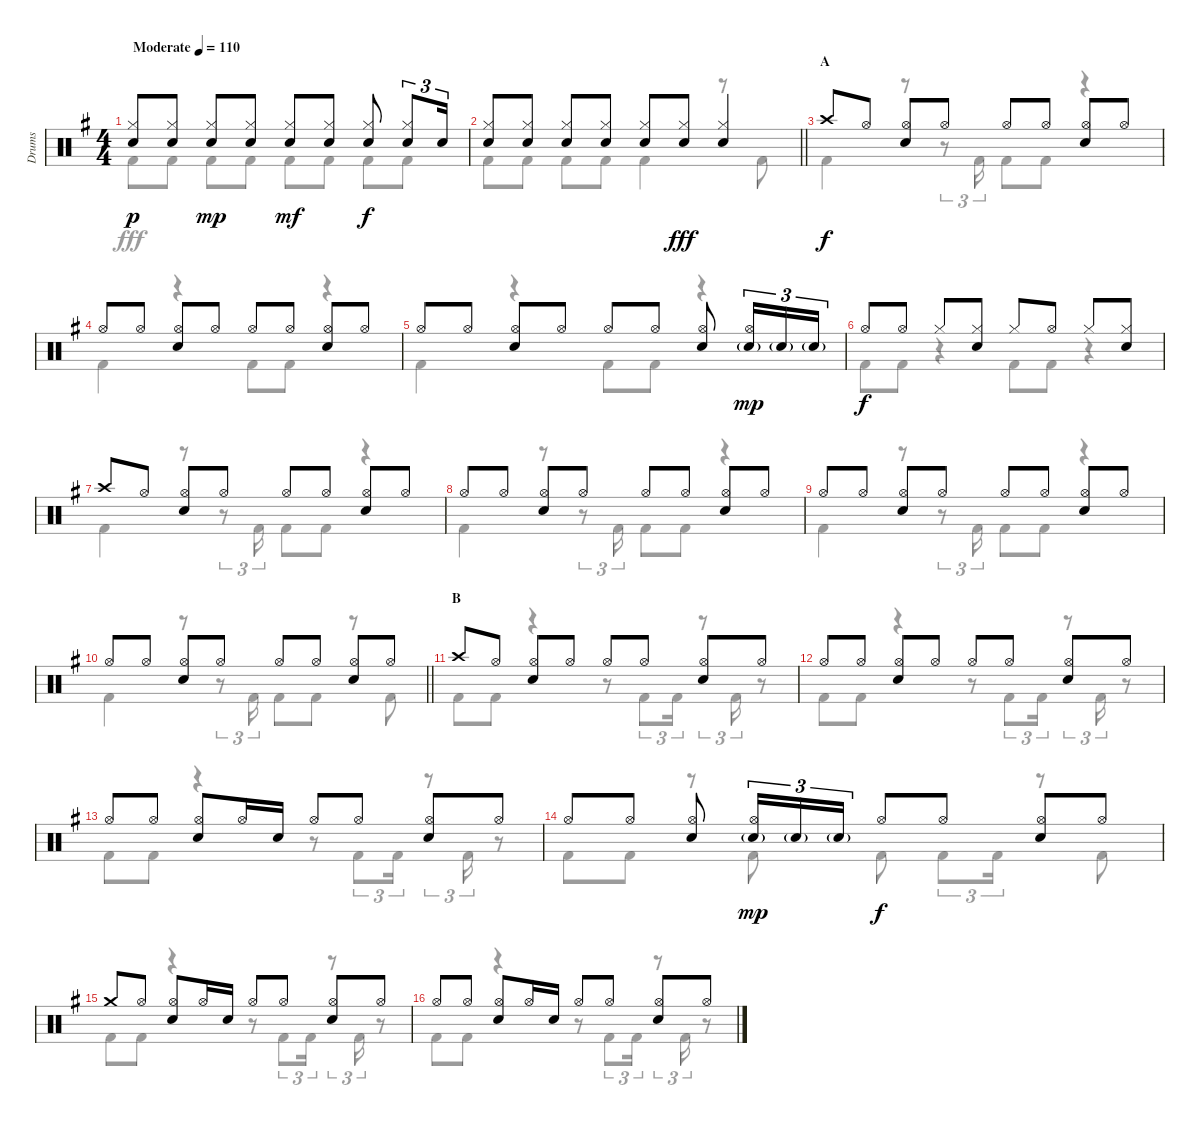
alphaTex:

\track ("Drums" "Drums") {instrument percussion}
\staff {score}
\articulation defaults
\voice
\ts (4 4)
\tempo (110 "Moderate")
\clef neutral
\ks g
("Hi-Hat (closed)" "Snare (hit) 2").8{dy p} ("Hi-Hat (closed)" "Snare (hit) 2").8 ("Hi-Hat (closed)" "Snare (hit) 2").8{dy mp} ("Hi-Hat (closed)" "Snare (hit) 2").8 ("Hi-Hat (closed)" "Snare (hit) 2").8{dy mf} ("Hi-Hat (closed)" "Snare (hit) 2").8 ("Hi-Hat (closed)" "Snare (hit) 2").8{dy f} ("Hi-Hat (closed)" "Snare (hit) 2").8{tu (3 2)} "Snare (hit) 2".16{tu (3 2)} |
\barLineRight lightlight
("Hi-Hat (closed)" "Snare (hit) 2").8 ("Hi-Hat (closed)" "Snare (hit) 2").8 ("Hi-Hat (closed)" "Snare (hit) 2").8 ("Hi-Hat (closed)" "Snare (hit) 2").8 ("Hi-Hat (closed)" "Snare (hit) 2").8 ("Hi-Hat (closed)" "Snare (hit) 2").8{dy fff} ("Hi-Hat (closed)" "Snare (hit) 2").4 |
\section ("" "A")
"Crash high (hit)".8{dy f} "Hi-Hat (open)".8 ("Hi-Hat (open)" "Snare (hit) 2").8 "Hi-Hat (open)".8 "Hi-Hat (open)".8 "Hi-Hat (open)".8 ("Hi-Hat (open)" "Snare (hit) 2").8 "Hi-Hat (open)".8 |
"Hi-Hat (open)".8 "Hi-Hat (open)".8 ("Hi-Hat (open)" "Snare (hit) 2").8 "Hi-Hat (open)".8 "Hi-Hat (open)".8 "Hi-Hat (open)".8 ("Hi-Hat (open)" "Snare (hit) 2").8 "Hi-Hat (open)".8 |
"Hi-Hat (open)".8 "Hi-Hat (open)".8 ("Hi-Hat (open)" "Snare (hit) 2").8 "Hi-Hat (open)".8 "Hi-Hat (open)".8 "Hi-Hat (open)".8 ("Hi-Hat (open)" "Snare (hit) 2").8 ("Hi-Hat (open)" "Snare (hit) 2"{g}).16{tu (3 2) dy mp} "Snare (hit) 2"{g}.16{tu (3 2)} "Snare (hit) 2"{g}.16{tu (3 2)} |
"Hi-Hat (open)".8{dy f} "Hi-Hat (open)".8 "Hi-Hat (closed)".8 ("Hi-Hat (closed)" "Snare (hit) 2").8 "Hi-Hat (closed)".8 "Hi-Hat (open)".8 "Hi-Hat (closed)".8 ("Hi-Hat (closed)" "Snare (hit) 2").8 |
"Crash high (hit)".8 "Hi-Hat (open)".8 ("Hi-Hat (open)" "Snare (hit) 2").8 "Hi-Hat (open)".8 "Hi-Hat (open)".8 "Hi-Hat (open)".8 ("Hi-Hat (open)" "Snare (hit) 2").8 "Hi-Hat (open)".8 |
"Hi-Hat (open)".8 "Hi-Hat (open)".8 ("Hi-Hat (open)" "Snare (hit) 2").8 "Hi-Hat (open)".8 "Hi-Hat (open)".8 "Hi-Hat (open)".8 ("Hi-Hat (open)" "Snare (hit) 2").8 "Hi-Hat (open)".8 |
"Hi-Hat (open)".8 "Hi-Hat (open)".8 ("Hi-Hat (open)" "Snare (hit) 2").8 "Hi-Hat (open)".8 "Hi-Hat (open)".8 "Hi-Hat (open)".8 ("Hi-Hat (open)" "Snare (hit) 2").8 "Hi-Hat (open)".8 |
\barLineRight lightlight "Hi-Hat (open)".8 "Hi-Hat (open)".8
("Hi-Hat (open)" "Snare (hit) 2").8 "Hi-Hat (open)".8 "Hi-Hat (open)".8 "Hi-Hat (open)".8 ("Hi-Hat (open)" "Snare (hit) 2").8 "Hi-Hat (open)".8 |
\section ("" "B")
"Crash high (hit)".8 "Hi-Hat (open)".8 ("Hi-Hat (open)" "Snare (hit) 2").8 "Hi-Hat (open)".8 "Hi-Hat (open)".8 "Hi-Hat (open)".8 ("Hi-Hat (open)" "Snare (hit) 2").8 "Hi-Hat (open)".8 |
"Hi-Hat (open)".8 "Hi-Hat (open)".8 ("Hi-Hat (open)" "Snare (hit) 2").8 "Hi-Hat (open)".8 "Hi-Hat (open)".8 "Hi-Hat (open)".8 ("Hi-Hat (open)" "Snare (hit) 2").8 "Hi-Hat (open)".8 |
"Hi-Hat (open)".8 "Hi-Hat (open)".8 ("Hi-Hat (open)" "Snare (hit) 2").8 "Hi-Hat (open)".16 "Snare (hit) 2".16 "Hi-Hat (open)".8 "Hi-Hat (open)".8 ("Hi-Hat (open)" "Snare (hit) 2").8 "Hi-Hat (open)".8 |
"Hi-Hat (open)".8 "Hi-Hat (open)".8 ("Hi-Hat (open)" "Snare (hit) 2").8 ("Hi-Hat (open)" "Snare (hit) 2"{g}).16{tu (3 2) dy mp} "Snare (hit) 2"{g}.16{tu (3 2)} "Snare (hit) 2"{g}.16{tu (3 2)} "Hi-Hat (open)".8{dy f} "Hi-Hat (open)".8 ("Hi-Hat (open)" "Snare (hit) 2").8 "Hi-Hat (open)".8 |
"Crash medium (hit)".8 "Hi-Hat (open)".8 ("Hi-Hat (open)" "Snare (hit) 2").8 "Hi-Hat (open)".16 "Snare (hit) 2".16 "Hi-Hat (open)".8 "Hi-Hat (open)".8 ("Hi-Hat (open)" "Snare (hit) 2").8 "Hi-Hat (open)".8 |
"Hi-Hat (open)".8 "Hi-Hat (open)".8 ("Hi-Hat (open)" "Snare (hit) 2").8 "Hi-Hat (open)".16 "Snare (hit) 2".16 "Hi-Hat (open)".8 "Hi-Hat (open)".8 ("Hi-Hat (open)" "Snare (hit) 2").8 "Hi-Hat (open)".8
\voice
\clef neutral
\ottava regular
\simile none
\ks g "Kick (hit) 2".8{dy fff} "Kick (hit) 2".8 "Kick (hit) 2".8 "Kick (hit) 2".8 "Kick (hit) 2".8 "Kick (hit) 2".8 "Kick (hit) 2".8 "Kick (hit) 2".8
|
\barLineRight lightlight "Kick (hit) 2".8 "Kick (hit) 2".8 "Kick (hit) 2".8 "Kick (hit) 2".8 "Kick (hit) 2".4
r.8 "Kick (hit) 2".8 |
"Kick (hit) 2".4 r.8 r.8{tu (3 2)} "Kick (hit) 2".16{tu (3 2)} "Kick (hit) 2".8 "Kick (hit) 2".8 r.4 |
"Kick (hit) 2".4 r.4 "Kick (hit) 2".8 "Kick (hit) 2".8 r.4 |
"Kick (hit) 2".4 r.4 "Kick (hit) 2".8 "Kick (hit) 2".8 r.4 |
"Kick (hit) 2".8 "Kick (hit) 2".8 r.4 "Kick (hit) 2".8 "Kick (hit) 2".8 r.4 |
"Kick (hit) 2".4 r.8 r.8{tu (3 2)} "Kick (hit) 2".16{tu (3 2)} "Kick (hit) 2".8 "Kick (hit) 2".8 r.4 |
"Kick (hit) 2".4 r.8 r.8{tu (3 2)} "Kick (hit) 2".16{tu (3 2)} "Kick (hit) 2".8 "Kick (hit) 2".8 r.4 |
"Kick (hit) 2".4 r.8 r.8{tu (3 2)} "Kick (hit) 2".16{tu (3 2)} "Kick (hit) 2".8 "Kick (hit) 2".8 r.4 |
\barLineRight lightlight "Kick (hit) 2".4
r.8 r.8{tu (3 2)} "Kick (hit) 2".16{tu (3 2)} "Kick (hit) 2".8 "Kick (hit) 2".8 r.8 "Kick (hit) 2".8 |
"Kick (hit) 2".8 "Kick (hit) 2".8 r.4 r.8 "Kick (hit) 2".8{tu (3 2)} "Kick (hit) 2".16{tu (3 2)} r.8{tu (3 2)} "Kick (hit) 2".16{tu (3 2)} r.8 |
"Kick (hit) 2".8 "Kick (hit) 2".8 r.4 r.8 "Kick (hit) 2".8{tu (3 2)} "Kick (hit) 2".16{tu (3 2)} r.8{tu (3 2)} "Kick (hit) 2".16{tu (3 2)} r.8 |
"Kick (hit) 2".8 "Kick (hit) 2".8 r.4 r.8 "Kick (hit) 2".8{tu (3 2)} "Kick (hit) 2".16{tu (3 2)} r.8{tu (3 2)} "Kick (hit) 2".16{tu (3 2)} r.8 |
"Kick (hit) 2".8 "Kick (hit) 2".8 r.8 "Kick (hit) 2".8 "Kick (hit) 2".8 "Kick (hit) 2".8{tu (3 2)} "Kick (hit) 2".16{tu (3 2)} r.8 "Kick (hit) 2".8 |
"Kick (hit) 2".8 "Kick (hit) 2".8 r.4 r.8 "Kick (hit) 2".8{tu (3 2)} "Kick (hit) 2".16{tu (3 2)} r.8{tu (3 2)} "Kick (hit) 2".16{tu (3 2)} r.8 |
"Kick (hit) 2".8 "Kick (hit) 2".8 r.4 r.8 "Kick (hit) 2".8{tu (3 2)} "Kick (hit) 2".16{tu (3 2)} r.8{tu (3 2)} "Kick (hit) 2".16{tu (3 2)} r.8
